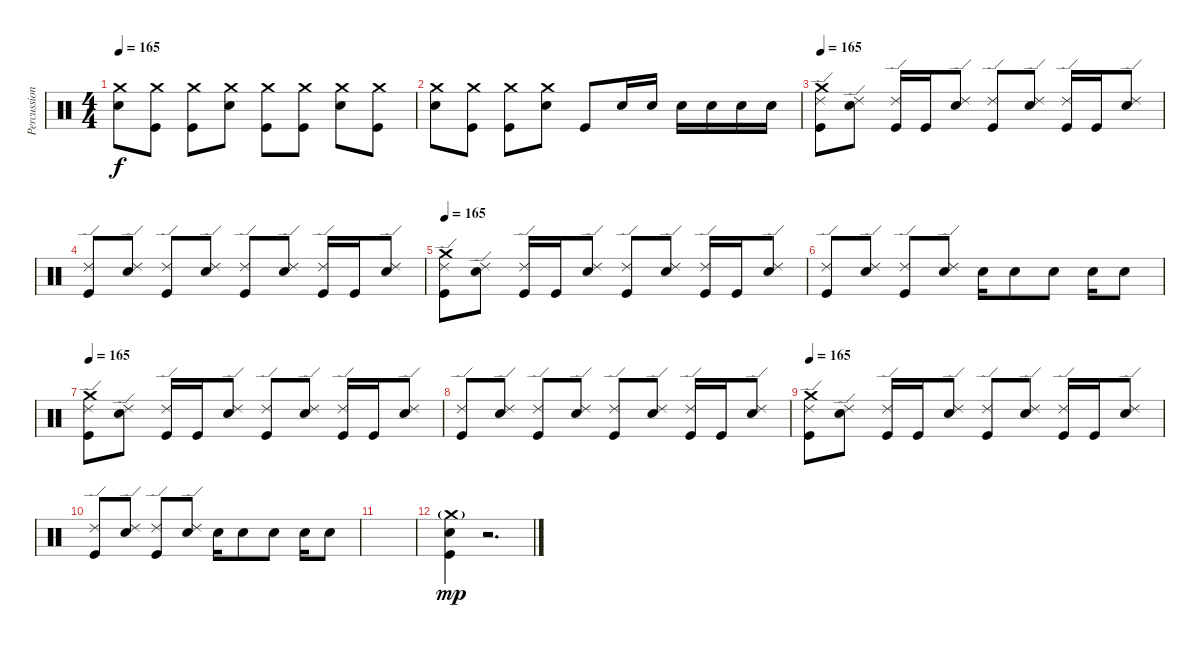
\track ("Percussion" "Percussion") {instrument percussion}
\staff {score}
\articulation defaults
\ts (4 4)
\tempo 165
\clef neutral
\ks c
("Crash medium (hit)" "Electric Snare (hit)").8{dy f} ("Crash medium (hit)" "Kick (hit)").8 ("Crash medium (hit)" "Kick (hit)").8 ("Crash medium (hit)" "Electric Snare (hit)").8 ("Crash medium (hit)" "Kick (hit)").8 ("Crash medium (hit)" "Kick (hit)").8 ("Crash medium (hit)" "Electric Snare (hit)").8 ("Crash medium (hit)" "Kick (hit)").8 |
("Crash medium (hit)" "Electric Snare (hit)").8 ("Crash medium (hit)" "Kick (hit)").8 ("Crash medium (hit)" "Kick (hit)").8 ("Crash medium (hit)" "Electric Snare (hit)").8 "Kick (hit)".8 "Electric Snare (hit)".16 "Electric Snare (hit)".16 "Electric Snare (hit)".16 "Electric Snare (hit)".16 "Electric Snare (hit)".16 "Electric Snare (hit)".16 |
\tempo 165
("Crash medium (hit)" "Ride (edge) 2" "Kick (hit)").8 ("Ride (edge) 2" "Electric Snare (hit)").8 ("Ride (edge) 2" "Kick (hit)").16 "Kick (hit)".16 ("Ride (edge) 2" "Electric Snare (hit)").8 ("Ride (edge) 2" "Kick (hit)").8 ("Ride (edge) 2" "Electric Snare (hit)").8 ("Ride (edge) 2" "Kick (hit)").16 "Kick (hit)".16 ("Ride (edge) 2" "Electric Snare (hit)").8 |
("Ride (edge) 2" "Kick (hit)").8 ("Ride (edge) 2" "Electric Snare (hit)").8 ("Ride (edge) 2" "Kick (hit)").8 ("Ride (edge) 2" "Electric Snare (hit)").8 ("Ride (edge) 2" "Kick (hit)").8 ("Ride (edge) 2" "Electric Snare (hit)").8 ("Ride (edge) 2" "Kick (hit)").16 "Kick (hit)".16 ("Ride (edge) 2" "Electric Snare (hit)").8 |
\tempo 165
("Crash medium (hit)" "Ride (edge) 2" "Kick (hit)").8 ("Ride (edge) 2" "Electric Snare (hit)").8 ("Ride (edge) 2" "Kick (hit)").16 "Kick (hit)".16 ("Ride (edge) 2" "Electric Snare (hit)").8 ("Ride (edge) 2" "Kick (hit)").8 ("Ride (edge) 2" "Electric Snare (hit)").8 ("Ride (edge) 2" "Kick (hit)").16 "Kick (hit)".16 ("Ride (edge) 2" "Electric Snare (hit)").8 |
("Ride (edge) 2" "Kick (hit)").8 ("Ride (edge) 2" "Electric Snare (hit)").8 ("Ride (edge) 2" "Kick (hit)").8 ("Ride (edge) 2" "Electric Snare (hit)").8 "Electric Snare (hit)".16 "Electric Snare (hit)".8 "Electric Snare (hit)".8 "Electric Snare (hit)".16 "Electric Snare (hit)".8 |
\tempo 165
("Crash medium (hit)" "Ride (edge) 2" "Kick (hit)").8 ("Ride (edge) 2" "Electric Snare (hit)").8 ("Ride (edge) 2" "Kick (hit)").16 "Kick (hit)".16 ("Ride (edge) 2" "Electric Snare (hit)").8 ("Ride (edge) 2" "Kick (hit)").8 ("Ride (edge) 2" "Electric Snare (hit)").8 ("Ride (edge) 2" "Kick (hit)").16 "Kick (hit)".16 ("Ride (edge) 2" "Electric Snare (hit)").8 |
("Ride (edge) 2" "Kick (hit)").8 ("Ride (edge) 2" "Electric Snare (hit)").8 ("Ride (edge) 2" "Kick (hit)").8 ("Ride (edge) 2" "Electric Snare (hit)").8 ("Ride (edge) 2" "Kick (hit)").8 ("Ride (edge) 2" "Electric Snare (hit)").8 ("Ride (edge) 2" "Kick (hit)").16 "Kick (hit)".16 ("Ride (edge) 2" "Electric Snare (hit)").8 |
\tempo 165
("Crash medium (hit)" "Ride (edge) 2" "Kick (hit)").8 ("Ride (edge) 2" "Electric Snare (hit)").8 ("Ride (edge) 2" "Kick (hit)").16 "Kick (hit)".16 ("Ride (edge) 2" "Electric Snare (hit)").8 ("Ride (edge) 2" "Kick (hit)").8 ("Ride (edge) 2" "Electric Snare (hit)").8 ("Ride (edge) 2" "Kick (hit)").16 "Kick (hit)".16 ("Ride (edge) 2" "Electric Snare (hit)").8 |
("Ride (edge) 2" "Kick (hit)").8 ("Ride (edge) 2" "Electric Snare (hit)").8 ("Ride (edge) 2" "Kick (hit)").8 ("Ride (edge) 2" "Electric Snare (hit)").8 "Electric Snare (hit)".16 "Electric Snare (hit)".8 "Electric Snare (hit)".8 "Electric Snare (hit)".16 "Electric Snare (hit)".8 |
|
("Crash medium (hit)"{g} "Electric Snare (hit)" "Kick (hit)").4{dy mp} r.2{d}
